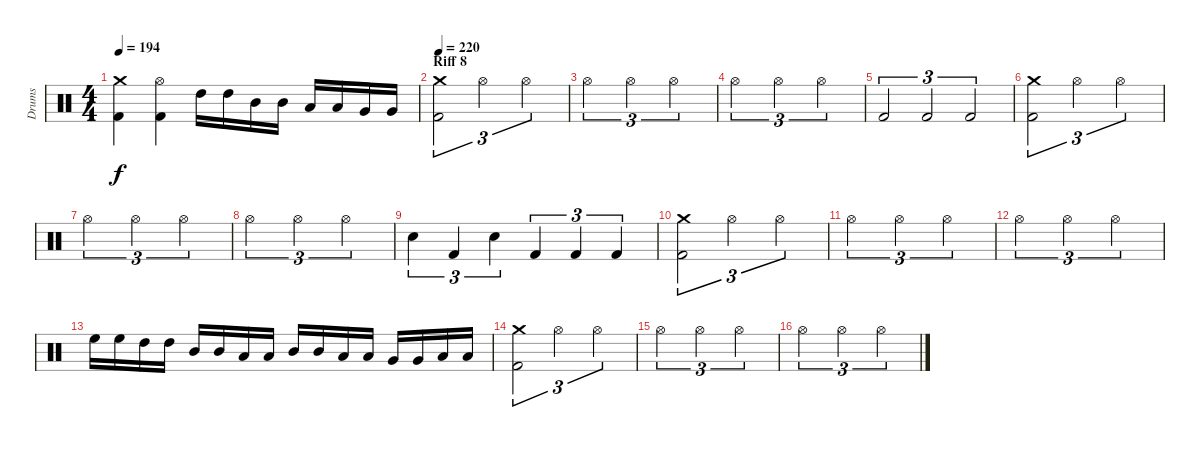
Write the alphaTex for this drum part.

\track ("Drums" "Drums") {instrument percussion}
\staff {score}
\articulation defaults
\ts (4 4)
\tempo 194
\clef neutral
\ks c
("Crash medium (hit)" "Kick (hit) 2").4{dy f} ("Hi-Hat (open)" "Kick (hit) 2").4 "High Tom (hit)".16 "High Tom (hit)".16 "Mid Tom (hit)".16 "Mid Tom (hit)".16 "Low Tom (hit)".16 "Low Tom (hit)".16 "Very Low Tom (hit)".16 "Very Low Tom (hit)".16 |
\section ("" "Riff 8")
\tempo 220
("Crash medium (hit)" "Kick (hit) 2").2{tu (3 2)} "Hi-Hat (open)".2{tu (3 2)} "Hi-Hat (open)".2{tu (3 2)} |
"Hi-Hat (open)".2{tu (3 2)} "Hi-Hat (open)".2{tu (3 2)} "Hi-Hat (open)".2{tu (3 2)} |
"Hi-Hat (open)".2{tu (3 2)} "Hi-Hat (open)".2{tu (3 2)} "Hi-Hat (open)".2{tu (3 2)} |
"Kick (hit) 2".2{tu (3 2)} "Kick (hit) 2".2{tu (3 2)} "Kick (hit) 2".2{tu (3 2)} |
("Crash medium (hit)" "Kick (hit) 2").2{tu (3 2)} "Hi-Hat (open)".2{tu (3 2)} "Hi-Hat (open)".2{tu (3 2)} |
"Hi-Hat (open)".2{tu (3 2)} "Hi-Hat (open)".2{tu (3 2)} "Hi-Hat (open)".2{tu (3 2)} |
"Hi-Hat (open)".2{tu (3 2)} "Hi-Hat (open)".2{tu (3 2)} "Hi-Hat (open)".2{tu (3 2)} |
"Electric Snare (hit)".4{tu (3 2)} "Kick (hit) 2".4{tu (3 2)} "Electric Snare (hit)".4{tu (3 2)} "Kick (hit) 2".4{tu (3 2)} "Kick (hit) 2".4{tu (3 2)} "Kick (hit) 2".4{tu (3 2)} |
("Crash medium (hit)" "Kick (hit) 2").2{tu (3 2)} "Hi-Hat (open)".2{tu (3 2)} "Hi-Hat (open)".2{tu (3 2)} |
"Hi-Hat (open)".2{tu (3 2)} "Hi-Hat (open)".2{tu (3 2)} "Hi-Hat (open)".2{tu (3 2)} |
"Hi-Hat (open)".2{tu (3 2)} "Hi-Hat (open)".2{tu (3 2)} "Hi-Hat (open)".2{tu (3 2)} |
"High Floor Tom (hit)".16 "High Floor Tom (hit)".16 "High Tom (hit)".16 "High Tom (hit)".16 "Mid Tom (hit)".16 "Mid Tom (hit)".16 "Low Tom (hit)".16 "Low Tom (hit)".16 "Mid Tom (hit)".16 "Mid Tom (hit)".16 "Low Tom (hit)".16 "Low Tom (hit)".16 "Very Low Tom (hit)".16 "Very Low Tom (hit)".16 "Low Floor Tom (hit)".16 "Low Floor Tom (hit)".16 |
("Crash medium (hit)" "Kick (hit) 2").2{tu (3 2)} "Hi-Hat (open)".2{tu (3 2)} "Hi-Hat (open)".2{tu (3 2)} |
"Hi-Hat (open)".2{tu (3 2)} "Hi-Hat (open)".2{tu (3 2)} "Hi-Hat (open)".2{tu (3 2)} |
"Hi-Hat (open)".2{tu (3 2)} "Hi-Hat (open)".2{tu (3 2)} "Hi-Hat (open)".2{tu (3 2)}
